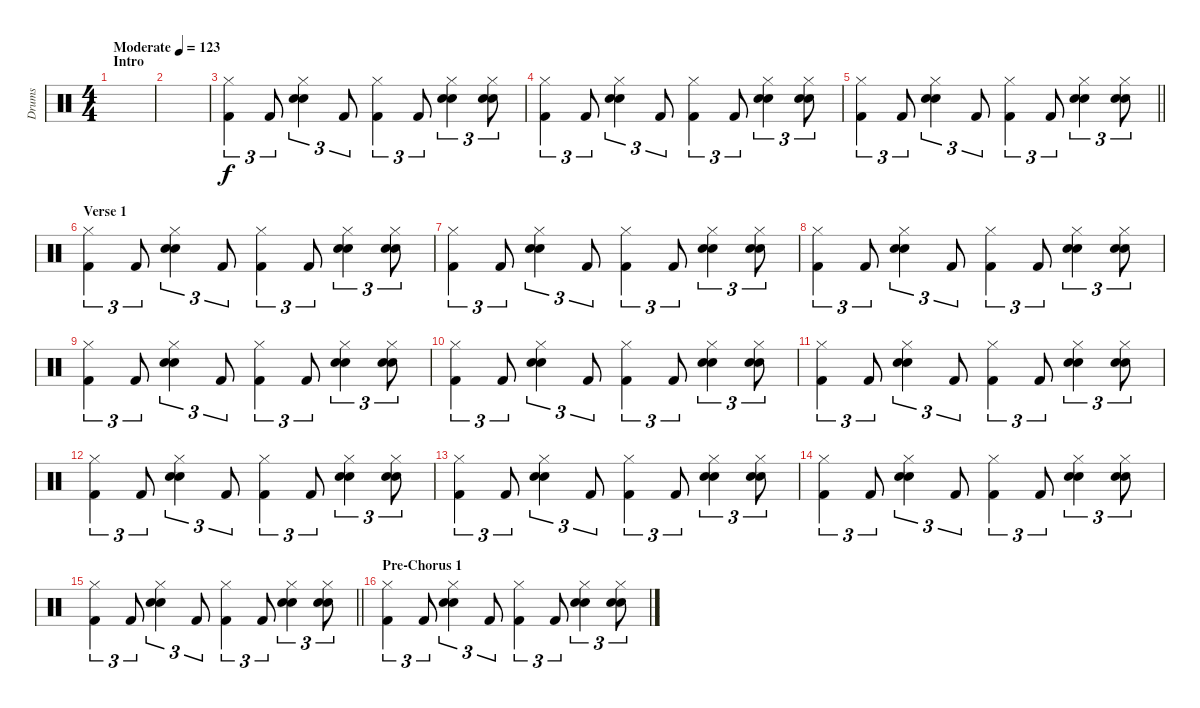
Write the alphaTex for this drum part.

\track ("Drums" "Drums") {instrument percussion}
\staff {score}
\articulation defaults
\ts (4 4)
\section ("" "Intro")
\tempo (123 "Moderate")
\clef neutral
\ks c
|
|
("Hi-Hat (closed)" "Kick (hit) 2").4{tu (3 2)} "Kick (hit) 2".8{tu (3 2)} ("Hi-Hat (closed)" "Hand Clap (hit)" "Snare (hit) 2").4{tu (3 2)} "Kick (hit) 2".8{tu (3 2)} ("Hi-Hat (closed)" "Kick (hit) 2").4{tu (3 2)} "Kick (hit) 2".8{tu (3 2)} ("Hi-Hat (closed)" "Hand Clap (hit)" "Snare (hit) 2").4{tu (3 2)} ("Hi-Hat (closed)" "Hand Clap (hit)" "Snare (hit) 2").8{tu (3 2)} |
("Hi-Hat (closed)" "Kick (hit) 2").4{tu (3 2)} "Kick (hit) 2".8{tu (3 2)} ("Hi-Hat (closed)" "Hand Clap (hit)" "Snare (hit) 2").4{tu (3 2)} "Kick (hit) 2".8{tu (3 2)} ("Hi-Hat (closed)" "Kick (hit) 2").4{tu (3 2)} "Kick (hit) 2".8{tu (3 2)} ("Hi-Hat (closed)" "Hand Clap (hit)" "Snare (hit) 2").4{tu (3 2)} ("Hi-Hat (closed)" "Hand Clap (hit)" "Snare (hit) 2").8{tu (3 2)} |
\barLineRight lightlight
("Hi-Hat (closed)" "Kick (hit) 2").4{tu (3 2)} "Kick (hit) 2".8{tu (3 2)} ("Hi-Hat (closed)" "Hand Clap (hit)" "Snare (hit) 2").4{tu (3 2)} "Kick (hit) 2".8{tu (3 2)} ("Hi-Hat (closed)" "Kick (hit) 2").4{tu (3 2)} "Kick (hit) 2".8{tu (3 2)} ("Hi-Hat (closed)" "Hand Clap (hit)" "Snare (hit) 2").4{tu (3 2)} ("Hi-Hat (closed)" "Hand Clap (hit)" "Snare (hit) 2").8{tu (3 2)} |
\section ("" "Verse 1")
("Hi-Hat (closed)" "Kick (hit) 2").4{tu (3 2)} "Kick (hit) 2".8{tu (3 2)} ("Hi-Hat (closed)" "Hand Clap (hit)" "Snare (hit) 2").4{tu (3 2)} "Kick (hit) 2".8{tu (3 2)} ("Hi-Hat (closed)" "Kick (hit) 2").4{tu (3 2)} "Kick (hit) 2".8{tu (3 2)} ("Hi-Hat (closed)" "Hand Clap (hit)" "Snare (hit) 2").4{tu (3 2)} ("Hi-Hat (closed)" "Hand Clap (hit)" "Snare (hit) 2").8{tu (3 2)} |
("Hi-Hat (closed)" "Kick (hit) 2").4{tu (3 2)} "Kick (hit) 2".8{tu (3 2)} ("Hi-Hat (closed)" "Hand Clap (hit)" "Snare (hit) 2").4{tu (3 2)} "Kick (hit) 2".8{tu (3 2)} ("Hi-Hat (closed)" "Kick (hit) 2").4{tu (3 2)} "Kick (hit) 2".8{tu (3 2)} ("Hi-Hat (closed)" "Hand Clap (hit)" "Snare (hit) 2").4{tu (3 2)} ("Hi-Hat (closed)" "Hand Clap (hit)" "Snare (hit) 2").8{tu (3 2)} |
("Hi-Hat (closed)" "Kick (hit) 2").4{tu (3 2)} "Kick (hit) 2".8{tu (3 2)} ("Hi-Hat (closed)" "Hand Clap (hit)" "Snare (hit) 2").4{tu (3 2)} "Kick (hit) 2".8{tu (3 2)} ("Hi-Hat (closed)" "Kick (hit) 2").4{tu (3 2)} "Kick (hit) 2".8{tu (3 2)} ("Hi-Hat (closed)" "Hand Clap (hit)" "Snare (hit) 2").4{tu (3 2)} ("Hi-Hat (closed)" "Hand Clap (hit)" "Snare (hit) 2").8{tu (3 2)} |
("Hi-Hat (closed)" "Kick (hit) 2").4{tu (3 2)} "Kick (hit) 2".8{tu (3 2)} ("Hi-Hat (closed)" "Hand Clap (hit)" "Snare (hit) 2").4{tu (3 2)} "Kick (hit) 2".8{tu (3 2)} ("Hi-Hat (closed)" "Kick (hit) 2").4{tu (3 2)} "Kick (hit) 2".8{tu (3 2)} ("Hi-Hat (closed)" "Hand Clap (hit)" "Snare (hit) 2").4{tu (3 2)} ("Hi-Hat (closed)" "Hand Clap (hit)" "Snare (hit) 2").8{tu (3 2)} |
("Hi-Hat (closed)" "Kick (hit) 2").4{tu (3 2)} "Kick (hit) 2".8{tu (3 2)} ("Hi-Hat (closed)" "Hand Clap (hit)" "Snare (hit) 2").4{tu (3 2)} "Kick (hit) 2".8{tu (3 2)} ("Hi-Hat (closed)" "Kick (hit) 2").4{tu (3 2)} "Kick (hit) 2".8{tu (3 2)} ("Hi-Hat (closed)" "Hand Clap (hit)" "Snare (hit) 2").4{tu (3 2)} ("Hi-Hat (closed)" "Hand Clap (hit)" "Snare (hit) 2").8{tu (3 2)} |
("Hi-Hat (closed)" "Kick (hit) 2").4{tu (3 2)} "Kick (hit) 2".8{tu (3 2)} ("Hi-Hat (closed)" "Hand Clap (hit)" "Snare (hit) 2").4{tu (3 2)} "Kick (hit) 2".8{tu (3 2)} ("Hi-Hat (closed)" "Kick (hit) 2").4{tu (3 2)} "Kick (hit) 2".8{tu (3 2)} ("Hi-Hat (closed)" "Hand Clap (hit)" "Snare (hit) 2").4{tu (3 2)} ("Hi-Hat (closed)" "Hand Clap (hit)" "Snare (hit) 2").8{tu (3 2)} |
("Hi-Hat (closed)" "Kick (hit) 2").4{tu (3 2)} "Kick (hit) 2".8{tu (3 2)} ("Hi-Hat (closed)" "Hand Clap (hit)" "Snare (hit) 2").4{tu (3 2)} "Kick (hit) 2".8{tu (3 2)} ("Hi-Hat (closed)" "Kick (hit) 2").4{tu (3 2)} "Kick (hit) 2".8{tu (3 2)} ("Hi-Hat (closed)" "Hand Clap (hit)" "Snare (hit) 2").4{tu (3 2)} ("Hi-Hat (closed)" "Hand Clap (hit)" "Snare (hit) 2").8{tu (3 2)} |
("Hi-Hat (closed)" "Kick (hit) 2").4{tu (3 2)} "Kick (hit) 2".8{tu (3 2)} ("Hi-Hat (closed)" "Hand Clap (hit)" "Snare (hit) 2").4{tu (3 2)} "Kick (hit) 2".8{tu (3 2)} ("Hi-Hat (closed)" "Kick (hit) 2").4{tu (3 2)} "Kick (hit) 2".8{tu (3 2)} ("Hi-Hat (closed)" "Hand Clap (hit)" "Snare (hit) 2").4{tu (3 2)} ("Hi-Hat (closed)" "Hand Clap (hit)" "Snare (hit) 2").8{tu (3 2)} |
("Hi-Hat (closed)" "Kick (hit) 2").4{tu (3 2)} "Kick (hit) 2".8{tu (3 2)} ("Hi-Hat (closed)" "Hand Clap (hit)" "Snare (hit) 2").4{tu (3 2)} "Kick (hit) 2".8{tu (3 2)} ("Hi-Hat (closed)" "Kick (hit) 2").4{tu (3 2)} "Kick (hit) 2".8{tu (3 2)} ("Hi-Hat (closed)" "Hand Clap (hit)" "Snare (hit) 2").4{tu (3 2)} ("Hi-Hat (closed)" "Hand Clap (hit)" "Snare (hit) 2").8{tu (3 2)} |
\barLineRight lightlight
("Hi-Hat (closed)" "Kick (hit) 2").4{tu (3 2)} "Kick (hit) 2".8{tu (3 2)} ("Hi-Hat (closed)" "Hand Clap (hit)" "Snare (hit) 2").4{tu (3 2)} "Kick (hit) 2".8{tu (3 2)} ("Hi-Hat (closed)" "Kick (hit) 2").4{tu (3 2)} "Kick (hit) 2".8{tu (3 2)} ("Hi-Hat (closed)" "Hand Clap (hit)" "Snare (hit) 2").4{tu (3 2)} ("Hi-Hat (closed)" "Hand Clap (hit)" "Snare (hit) 2").8{tu (3 2)} |
\section ("" "Pre-Chorus 1")
("Hi-Hat (closed)" "Kick (hit) 2").4{tu (3 2)} "Kick (hit) 2".8{tu (3 2)} ("Hi-Hat (closed)" "Hand Clap (hit)" "Snare (hit) 2").4{tu (3 2)} "Kick (hit) 2".8{tu (3 2)} ("Hi-Hat (closed)" "Kick (hit) 2").4{tu (3 2)} "Kick (hit) 2".8{tu (3 2)} ("Hi-Hat (closed)" "Hand Clap (hit)" "Snare (hit) 2").4{tu (3 2)} ("Hi-Hat (closed)" "Hand Clap (hit)" "Snare (hit) 2").8{tu (3 2)}
